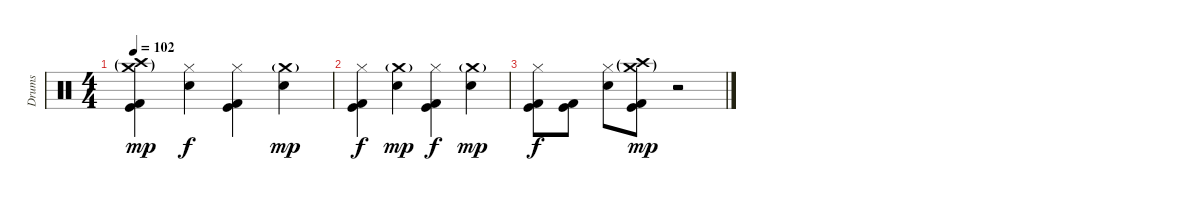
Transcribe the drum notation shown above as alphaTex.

\track ("Drums" "Drums") {instrument percussion}
\staff {score}
\articulation defaults
\ts (4 4)
\tempo 102
\clef neutral
\ks c
("Crash high (hit)"{g} "Crash medium (hit)"{g} "Kick (hit)" "Kick (hit) 2").4{dy mp} ("Hi-Hat (closed)" "Electric Snare (hit)").4{dy f} ("Hi-Hat (closed)" "Kick (hit)" "Kick (hit) 2").4 ("Crash medium (hit)"{g} "Electric Snare (hit)").4{dy mp} |
("Hi-Hat (closed)" "Kick (hit)" "Kick (hit) 2").4{dy f} ("Crash medium (hit)"{g} "Electric Snare (hit)").4{dy mp} ("Hi-Hat (closed)" "Kick (hit)" "Kick (hit) 2").4{dy f} ("Crash medium (hit)"{g} "Electric Snare (hit)").4{dy mp} |
("Hi-Hat (closed)" "Kick (hit)" "Kick (hit) 2").8{dy f} ("Kick (hit)" "Kick (hit) 2").8 ("Hi-Hat (closed)" "Electric Snare (hit)").8 ("Crash medium (hit)"{g} "Crash high (hit)"{g} "Kick (hit)" "Kick (hit) 2").8{dy mp} r.2
